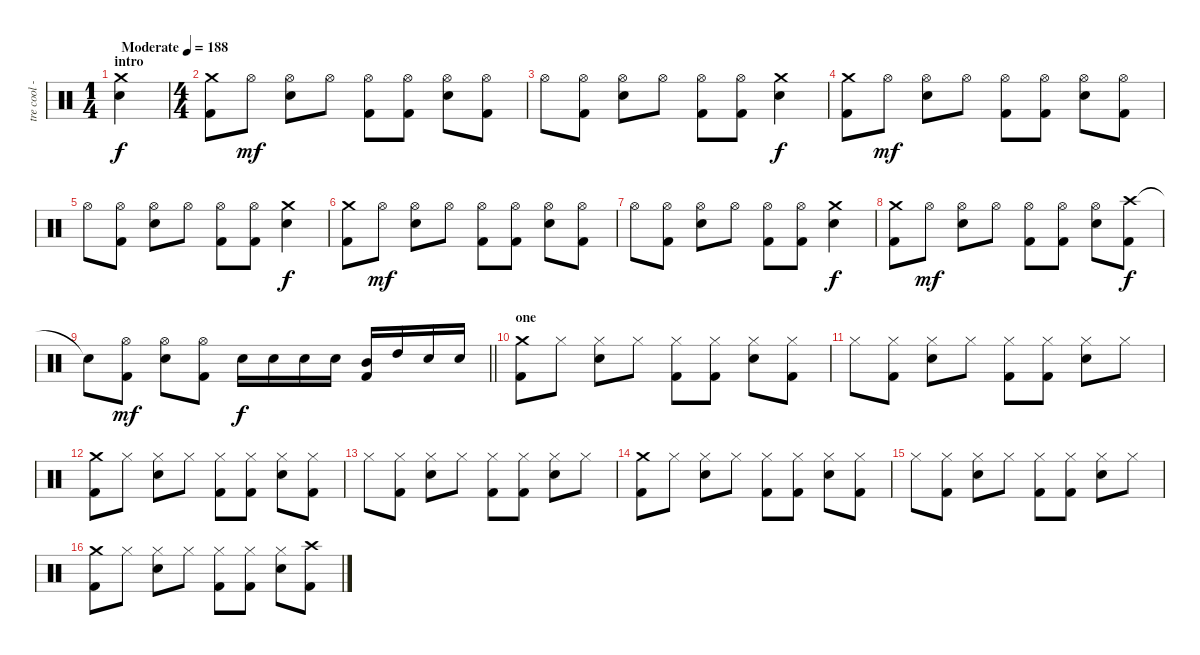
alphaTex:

\track ("tre cool - drums" "tre cool -") {instrument percussion}
\staff {score}
\articulation defaults
\ts (1 4)
\section ("" "intro")
\tempo (188 "Moderate")
\clef neutral
\ks c
("Crash medium (hit)" "Electric Snare (hit)").4{dy f} |
\ts (4 4)
("Crash medium (hit)" "Kick (hit) 2").8 "Hi-Hat (open)".8{dy mf} ("Hi-Hat (open)" "Electric Snare (hit)").8 "Hi-Hat (open)".8 ("Hi-Hat (open)" "Kick (hit) 2").8 ("Hi-Hat (open)" "Kick (hit) 2").8 ("Hi-Hat (open)" "Electric Snare (hit)").8 ("Hi-Hat (open)" "Kick (hit) 2").8 |
"Hi-Hat (open)".8 ("Hi-Hat (open)" "Kick (hit) 2").8 ("Hi-Hat (open)" "Electric Snare (hit)").8 "Hi-Hat (open)".8 ("Hi-Hat (open)" "Kick (hit) 2").8 ("Hi-Hat (open)" "Kick (hit) 2").8 ("Crash medium (hit)" "Electric Snare (hit)").4{dy f} |
("Crash medium (hit)" "Kick (hit) 2").8 "Hi-Hat (open)".8{dy mf} ("Hi-Hat (open)" "Electric Snare (hit)").8 "Hi-Hat (open)".8 ("Hi-Hat (open)" "Kick (hit) 2").8 ("Hi-Hat (open)" "Kick (hit) 2").8 ("Hi-Hat (open)" "Electric Snare (hit)").8 ("Hi-Hat (open)" "Kick (hit) 2").8 |
"Hi-Hat (open)".8 ("Hi-Hat (open)" "Kick (hit) 2").8 ("Hi-Hat (open)" "Electric Snare (hit)").8 "Hi-Hat (open)".8 ("Hi-Hat (open)" "Kick (hit) 2").8 ("Hi-Hat (open)" "Kick (hit) 2").8 ("Crash medium (hit)" "Electric Snare (hit)").4{dy f} |
("Crash medium (hit)" "Kick (hit) 2").8 "Hi-Hat (open)".8{dy mf} ("Hi-Hat (open)" "Electric Snare (hit)").8 "Hi-Hat (open)".8 ("Hi-Hat (open)" "Kick (hit) 2").8 ("Hi-Hat (open)" "Kick (hit) 2").8 ("Hi-Hat (open)" "Electric Snare (hit)").8 ("Hi-Hat (open)" "Kick (hit) 2").8 |
"Hi-Hat (open)".8 ("Hi-Hat (open)" "Kick (hit) 2").8 ("Hi-Hat (open)" "Electric Snare (hit)").8 "Hi-Hat (open)".8 ("Hi-Hat (open)" "Kick (hit) 2").8 ("Hi-Hat (open)" "Kick (hit) 2").8 ("Crash medium (hit)" "Electric Snare (hit)").4{dy f} |
("Crash medium (hit)" "Kick (hit) 2").8 "Hi-Hat (open)".8{dy mf} ("Hi-Hat (open)" "Electric Snare (hit)").8 "Hi-Hat (open)".8 ("Hi-Hat (open)" "Kick (hit) 2").8 ("Hi-Hat (open)" "Kick (hit) 2").8 ("Hi-Hat (open)" "Electric Snare (hit)").8 ("Crash high (hit)" "Kick (hit) 2").8{dy f} |
\barLineRight lightlight "Snare (hit)"{t}.8
("Hi-Hat (open)" "Kick (hit) 2").8{dy mf} ("Hi-Hat (open)" "Electric Snare (hit)").8 ("Hi-Hat (open)" "Kick (hit) 2").8 "Electric Snare (hit)".16{dy f} "Electric Snare (hit)".16 "Electric Snare (hit)".16 "Electric Snare (hit)".16 ("Mid Tom (hit)" "Kick (hit) 2").16 "High Tom (hit)".16 "Electric Snare (hit)".16 "Electric Snare (hit)".16 |
\section ("" "one")
("Crash medium (hit)" "Kick (hit) 2").8 "Hi-Hat (closed)".8 ("Hi-Hat (closed)" "Electric Snare (hit)").8 "Hi-Hat (closed)".8 ("Hi-Hat (closed)" "Kick (hit) 2").8 ("Hi-Hat (closed)" "Kick (hit) 2").8 ("Hi-Hat (closed)" "Electric Snare (hit)").8 ("Hi-Hat (closed)" "Kick (hit) 2").8 |
"Hi-Hat (closed)".8 ("Hi-Hat (closed)" "Kick (hit) 2").8 ("Hi-Hat (closed)" "Electric Snare (hit)").8 "Hi-Hat (closed)".8 ("Hi-Hat (closed)" "Kick (hit) 2").8 ("Hi-Hat (closed)" "Kick (hit) 2").8 ("Hi-Hat (closed)" "Electric Snare (hit)").8 "Hi-Hat (closed)".8 |
("Crash medium (hit)" "Kick (hit) 2").8 "Hi-Hat (closed)".8 ("Hi-Hat (closed)" "Electric Snare (hit)").8 "Hi-Hat (closed)".8 ("Hi-Hat (closed)" "Kick (hit) 2").8 ("Hi-Hat (closed)" "Kick (hit) 2").8 ("Hi-Hat (closed)" "Electric Snare (hit)").8 ("Hi-Hat (closed)" "Kick (hit) 2").8 |
"Hi-Hat (closed)".8 ("Hi-Hat (closed)" "Kick (hit) 2").8 ("Hi-Hat (closed)" "Electric Snare (hit)").8 "Hi-Hat (closed)".8 ("Hi-Hat (closed)" "Kick (hit) 2").8 ("Hi-Hat (closed)" "Kick (hit) 2").8 ("Hi-Hat (closed)" "Electric Snare (hit)").8 "Hi-Hat (closed)".8 |
("Crash medium (hit)" "Kick (hit) 2").8 "Hi-Hat (closed)".8 ("Hi-Hat (closed)" "Electric Snare (hit)").8 "Hi-Hat (closed)".8 ("Hi-Hat (closed)" "Kick (hit) 2").8 ("Hi-Hat (closed)" "Kick (hit) 2").8 ("Hi-Hat (closed)" "Electric Snare (hit)").8 ("Hi-Hat (closed)" "Kick (hit) 2").8 |
"Hi-Hat (closed)".8 ("Hi-Hat (closed)" "Kick (hit) 2").8 ("Hi-Hat (closed)" "Electric Snare (hit)").8 "Hi-Hat (closed)".8 ("Hi-Hat (closed)" "Kick (hit) 2").8 ("Hi-Hat (closed)" "Kick (hit) 2").8 ("Hi-Hat (closed)" "Electric Snare (hit)").8 "Hi-Hat (closed)".8 |
("Crash medium (hit)" "Kick (hit) 2").8 "Hi-Hat (closed)".8 ("Hi-Hat (closed)" "Electric Snare (hit)").8 "Hi-Hat (closed)".8 ("Hi-Hat (closed)" "Kick (hit) 2").8 ("Hi-Hat (closed)" "Kick (hit) 2").8 ("Hi-Hat (closed)" "Electric Snare (hit)").8 ("Crash high (hit)" "Kick (hit) 2").8
